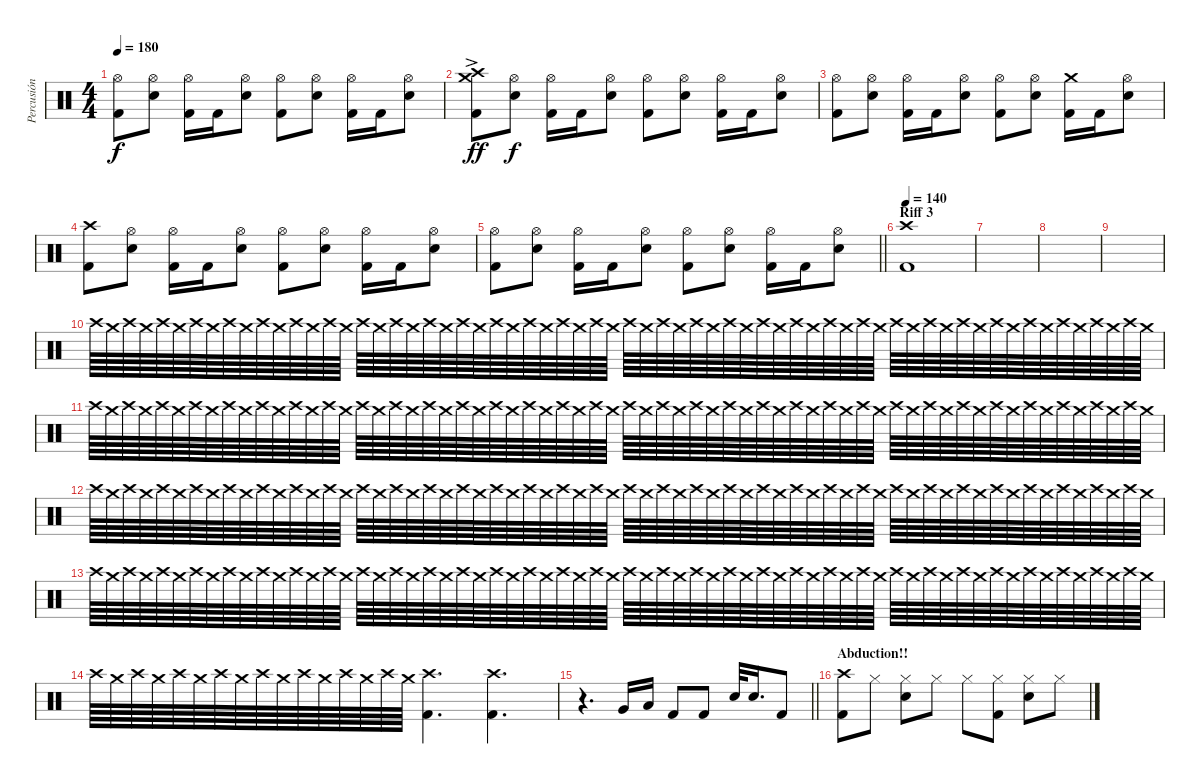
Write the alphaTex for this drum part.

\track ("Percusión" "Percusión") {instrument percussion}
\staff {score}
\articulation defaults
\ts (4 4)
\tempo 180
\clef neutral
\ks c
("Hi-Hat (open)" "Kick (hit) 2").8{dy f} ("Hi-Hat (open)" "Snare (hit) 2").8 ("Hi-Hat (open)" "Kick (hit) 2").16 "Kick (hit) 2".16 ("Hi-Hat (open)" "Snare (hit) 2").8 ("Hi-Hat (open)" "Kick (hit) 2").8 ("Hi-Hat (open)" "Snare (hit) 2").8 ("Hi-Hat (open)" "Kick (hit) 2").16 "Kick (hit) 2".16 ("Hi-Hat (open)" "Snare (hit) 2").8 |
("Crash medium (hit)"{ac} "Crash high (hit)" "Kick (hit) 2").8{dy ff} ("Hi-Hat (open)" "Snare (hit) 2").8{dy f} ("Hi-Hat (open)" "Kick (hit) 2").16 "Kick (hit) 2".16 ("Hi-Hat (open)" "Snare (hit) 2").8 ("Hi-Hat (open)" "Kick (hit) 2").8 ("Hi-Hat (open)" "Snare (hit) 2").8 ("Hi-Hat (open)" "Kick (hit) 2").16 "Kick (hit) 2".16 ("Hi-Hat (open)" "Snare (hit) 2").8 |
("Hi-Hat (open)" "Kick (hit) 2").8 ("Hi-Hat (open)" "Snare (hit) 2").8 ("Hi-Hat (open)" "Kick (hit) 2").16 "Kick (hit) 2".16 ("Hi-Hat (open)" "Snare (hit) 2").8 ("Hi-Hat (open)" "Kick (hit) 2").8 ("Hi-Hat (open)" "Snare (hit) 2").8 ("Crash medium (hit)" "Kick (hit) 2").16 "Kick (hit) 2".16 ("Hi-Hat (open)" "Snare (hit) 2").8 |
("Crash high (hit)" "Kick (hit) 2").8 ("Hi-Hat (open)" "Snare (hit) 2").8 ("Hi-Hat (open)" "Kick (hit) 2").16 "Kick (hit) 2".16 ("Hi-Hat (open)" "Snare (hit) 2").8 ("Hi-Hat (open)" "Kick (hit) 2").8 ("Hi-Hat (open)" "Snare (hit) 2").8 ("Hi-Hat (open)" "Kick (hit) 2").16 "Kick (hit) 2".16 ("Hi-Hat (open)" "Snare (hit) 2").8 |
\barLineRight lightlight
("Hi-Hat (open)" "Kick (hit) 2").8 ("Hi-Hat (open)" "Snare (hit) 2").8 ("Hi-Hat (open)" "Kick (hit) 2").16 "Kick (hit) 2".16 ("Hi-Hat (open)" "Snare (hit) 2").8 ("Hi-Hat (open)" "Kick (hit) 2").8 ("Hi-Hat (open)" "Snare (hit) 2").8 ("Hi-Hat (open)" "Kick (hit) 2").16 "Kick (hit) 2".16 ("Hi-Hat (open)" "Snare (hit) 2").8 |
\section ("" "Riff 3")
\tempo 140
("Crash high (hit)" "Kick (hit) 2").1 |
|
|
|
"Crash high (hit)".64 "Crash medium (hit)".64 "Crash high (hit)".64 "Crash medium (hit)".64 "Crash high (hit)".64 "Crash medium (hit)".64 "Crash high (hit)".64 "Crash medium (hit)".64 "Crash high (hit)".64 "Crash medium (hit)".64 "Crash high (hit)".64 "Crash medium (hit)".64 "Crash high (hit)".64 "Crash medium (hit)".64 "Crash high (hit)".64 "Crash medium (hit)".64 "Crash high (hit)".64 "Crash medium (hit)".64 "Crash high (hit)".64 "Crash medium (hit)".64 "Crash high (hit)".64 "Crash medium (hit)".64 "Crash high (hit)".64 "Crash medium (hit)".64 "Crash high (hit)".64 "Crash medium (hit)".64 "Crash high (hit)".64 "Crash medium (hit)".64 "Crash high (hit)".64 "Crash medium (hit)".64 "Crash high (hit)".64 "Crash medium (hit)".64 "Crash high (hit)".64 "Crash medium (hit)".64 "Crash high (hit)".64 "Crash medium (hit)".64 "Crash high (hit)".64 "Crash medium (hit)".64 "Crash high (hit)".64 "Crash medium (hit)".64 "Crash high (hit)".64 "Crash medium (hit)".64 "Crash high (hit)".64 "Crash medium (hit)".64 "Crash high (hit)".64 "Crash medium (hit)".64 "Crash high (hit)".64 "Crash medium (hit)".64 "Crash high (hit)".64 "Crash medium (hit)".64 "Crash high (hit)".64 "Crash medium (hit)".64 "Crash high (hit)".64 "Crash medium (hit)".64 "Crash high (hit)".64 "Crash medium (hit)".64 "Crash high (hit)".64 "Crash medium (hit)".64 "Crash high (hit)".64 "Crash medium (hit)".64 "Crash high (hit)".64 "Crash medium (hit)".64 "Crash high (hit)".64 "Crash medium (hit)".64 |
"Crash high (hit)".64 "Crash medium (hit)".64 "Crash high (hit)".64 "Crash medium (hit)".64 "Crash high (hit)".64 "Crash medium (hit)".64 "Crash high (hit)".64 "Crash medium (hit)".64 "Crash high (hit)".64 "Crash medium (hit)".64 "Crash high (hit)".64 "Crash medium (hit)".64 "Crash high (hit)".64 "Crash medium (hit)".64 "Crash high (hit)".64 "Crash medium (hit)".64 "Crash high (hit)".64 "Crash medium (hit)".64 "Crash high (hit)".64 "Crash medium (hit)".64 "Crash high (hit)".64 "Crash medium (hit)".64 "Crash high (hit)".64 "Crash medium (hit)".64 "Crash high (hit)".64 "Crash medium (hit)".64 "Crash high (hit)".64 "Crash medium (hit)".64 "Crash high (hit)".64 "Crash medium (hit)".64 "Crash high (hit)".64 "Crash medium (hit)".64 "Crash high (hit)".64 "Crash medium (hit)".64 "Crash high (hit)".64 "Crash medium (hit)".64 "Crash high (hit)".64 "Crash medium (hit)".64 "Crash high (hit)".64 "Crash medium (hit)".64 "Crash high (hit)".64 "Crash medium (hit)".64 "Crash high (hit)".64 "Crash medium (hit)".64 "Crash high (hit)".64 "Crash medium (hit)".64 "Crash high (hit)".64 "Crash medium (hit)".64 "Crash high (hit)".64 "Crash medium (hit)".64 "Crash high (hit)".64 "Crash medium (hit)".64 "Crash high (hit)".64 "Crash medium (hit)".64 "Crash high (hit)".64 "Crash medium (hit)".64 "Crash high (hit)".64 "Crash medium (hit)".64 "Crash high (hit)".64 "Crash medium (hit)".64 "Crash high (hit)".64 "Crash medium (hit)".64 "Crash high (hit)".64 "Crash medium (hit)".64 |
"Crash high (hit)".64{volume 13} "Crash medium (hit)".64 "Crash high (hit)".64 "Crash medium (hit)".64 "Crash high (hit)".64 "Crash medium (hit)".64 "Crash high (hit)".64 "Crash medium (hit)".64 "Crash high (hit)".64 "Crash medium (hit)".64 "Crash high (hit)".64 "Crash medium (hit)".64 "Crash high (hit)".64 "Crash medium (hit)".64 "Crash high (hit)".64 "Crash medium (hit)".64 "Crash high (hit)".64 "Crash medium (hit)".64 "Crash high (hit)".64 "Crash medium (hit)".64 "Crash high (hit)".64 "Crash medium (hit)".64 "Crash high (hit)".64 "Crash medium (hit)".64 "Crash high (hit)".64 "Crash medium (hit)".64 "Crash high (hit)".64 "Crash medium (hit)".64 "Crash high (hit)".64 "Crash medium (hit)".64 "Crash high (hit)".64 "Crash medium (hit)".64 "Crash high (hit)".64 "Crash medium (hit)".64 "Crash high (hit)".64 "Crash medium (hit)".64 "Crash high (hit)".64 "Crash medium (hit)".64 "Crash high (hit)".64 "Crash medium (hit)".64 "Crash high (hit)".64 "Crash medium (hit)".64 "Crash high (hit)".64 "Crash medium (hit)".64 "Crash high (hit)".64 "Crash medium (hit)".64 "Crash high (hit)".64 "Crash medium (hit)".64 "Crash high (hit)".64 "Crash medium (hit)".64 "Crash high (hit)".64 "Crash medium (hit)".64 "Crash high (hit)".64 "Crash medium (hit)".64 "Crash high (hit)".64 "Crash medium (hit)".64 "Crash high (hit)".64 "Crash medium (hit)".64 "Crash high (hit)".64 "Crash medium (hit)".64 "Crash high (hit)".64 "Crash medium (hit)".64 "Crash high (hit)".64 "Crash medium (hit)".64 |
"Crash high (hit)".64 "Crash medium (hit)".64 "Crash high (hit)".64 "Crash medium (hit)".64 "Crash high (hit)".64 "Crash medium (hit)".64 "Crash high (hit)".64 "Crash medium (hit)".64 "Crash high (hit)".64 "Crash medium (hit)".64 "Crash high (hit)".64 "Crash medium (hit)".64 "Crash high (hit)".64 "Crash medium (hit)".64 "Crash high (hit)".64 "Crash medium (hit)".64 "Crash high (hit)".64 "Crash medium (hit)".64 "Crash high (hit)".64 "Crash medium (hit)".64 "Crash high (hit)".64 "Crash medium (hit)".64 "Crash high (hit)".64 "Crash medium (hit)".64 "Crash high (hit)".64 "Crash medium (hit)".64 "Crash high (hit)".64 "Crash medium (hit)".64 "Crash high (hit)".64 "Crash medium (hit)".64 "Crash high (hit)".64 "Crash medium (hit)".64 "Crash high (hit)".64 "Crash medium (hit)".64 "Crash high (hit)".64 "Crash medium (hit)".64 "Crash high (hit)".64 "Crash medium (hit)".64 "Crash high (hit)".64 "Crash medium (hit)".64 "Crash high (hit)".64 "Crash medium (hit)".64 "Crash high (hit)".64 "Crash medium (hit)".64 "Crash high (hit)".64 "Crash medium (hit)".64 "Crash high (hit)".64 "Crash medium (hit)".64 "Crash high (hit)".64 "Crash medium (hit)".64 "Crash high (hit)".64 "Crash medium (hit)".64 "Crash high (hit)".64 "Crash medium (hit)".64 "Crash high (hit)".64 "Crash medium (hit)".64 "Crash high (hit)".64 "Crash medium (hit)".64 "Crash high (hit)".64 "Crash medium (hit)".64 "Crash high (hit)".64 "Crash medium (hit)".64 "Crash high (hit)".64 "Crash medium (hit)".64 |
"Crash high (hit)".64 "Crash medium (hit)".64 "Crash high (hit)".64 "Crash medium (hit)".64 "Crash high (hit)".64 "Crash medium (hit)".64 "Crash high (hit)".64 "Crash medium (hit)".64 "Crash high (hit)".64 "Crash medium (hit)".64 "Crash high (hit)".64 "Crash medium (hit)".64 "Crash high (hit)".64 "Crash medium (hit)".64 "Crash high (hit)".64 "Crash medium (hit)".64 ("Crash high (hit)" "Kick (hit) 2").4{d} ("Crash high (hit)" "Kick (hit) 2").4{d} |
\barLineRight lightlight
r.4{d} "Very Low Tom (hit)".16 "Low Floor Tom (hit)".16 "Kick (hit) 2".8 "Kick (hit) 2".8 "Snare (hit) 2".32 "Snare (hit) 2".16{d} "Kick (hit) 2".8 |
\section ("" "Abduction!!")
("Crash high (hit)" "Kick (hit) 2").8 "Hi-Hat (closed)".8 ("Hi-Hat (closed)" "Snare (hit) 2").8 "Hi-Hat (closed)".8 "Hi-Hat (closed)".8 ("Hi-Hat (closed)" "Kick (hit) 2").8 ("Hi-Hat (closed)" "Snare (hit) 2").8 "Hi-Hat (closed)".8
